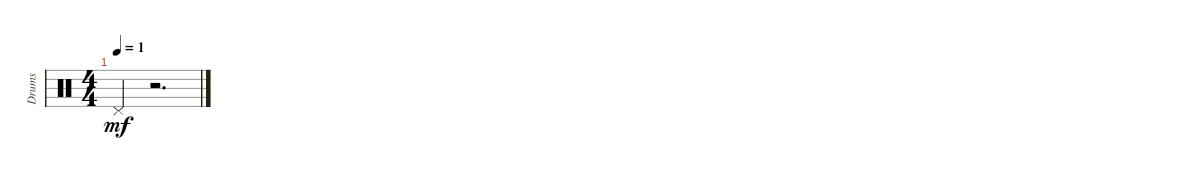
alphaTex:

\track ("Drums" "Drums") {instrument percussion}
\staff {score}
\articulation defaults
\ts (4 4)
\tempo 1
\clef neutral
\ks c "Pedal Hi-Hat (hit)".4{dy mf}
r.2{d}
